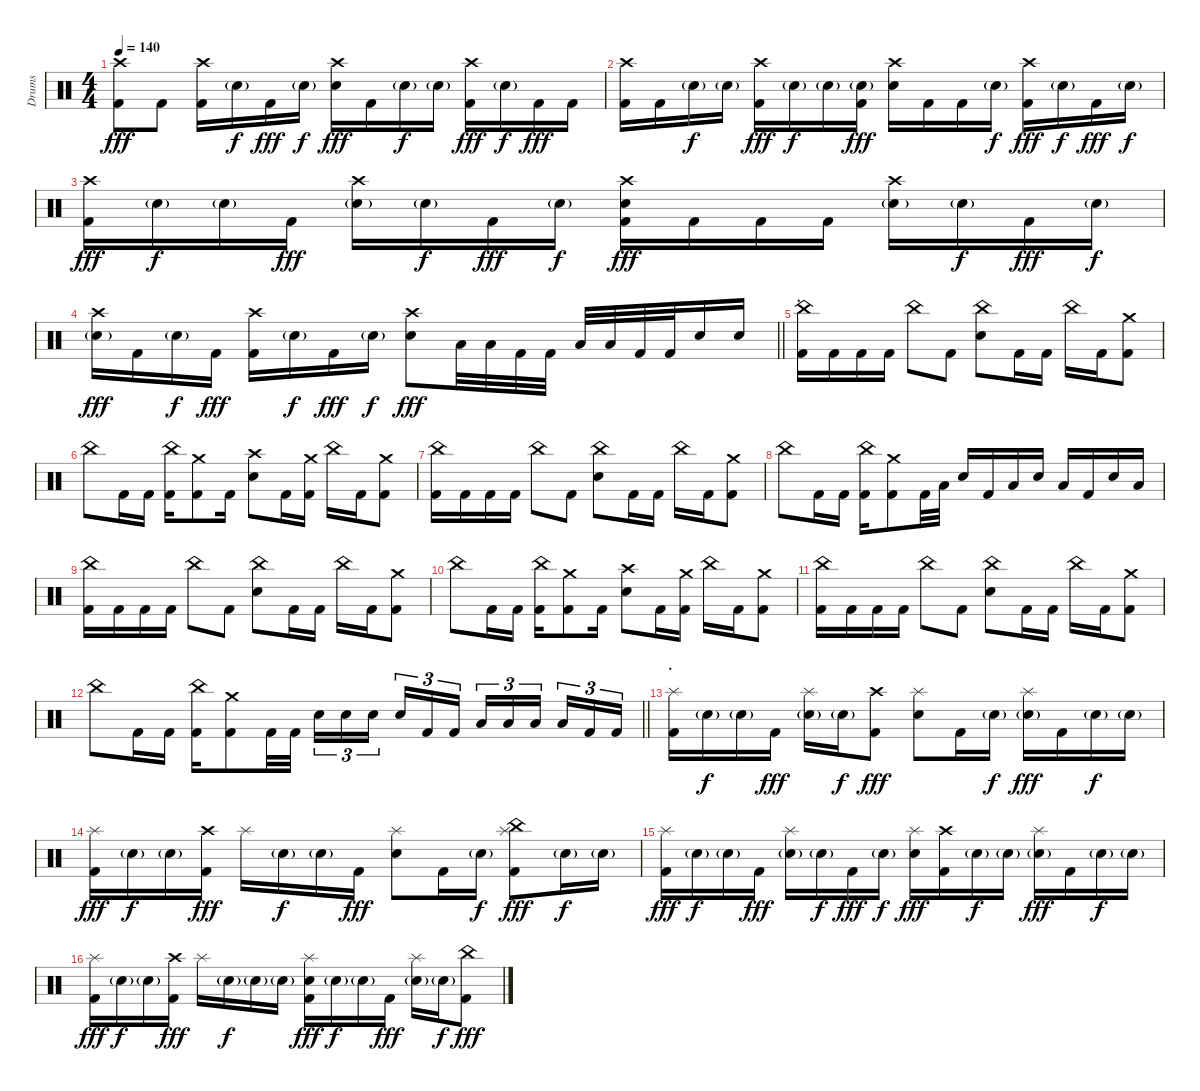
\track ("Drums" "Drums") {instrument percussion}
\staff {score}
\articulation defaults
\ts (4 4)
\tempo 140
\clef neutral
\ks c
("Crash high (hit)" "Kick (hit) 2").8{dy fff} "Kick (hit) 2".8 ("Crash high (hit)" "Kick (hit) 2").16 "Electric Snare (hit)"{g}.16{dy f} "Kick (hit) 2".16{dy fff} "Electric Snare (hit)"{g}.16{dy f} ("Crash high (hit)" "Electric Snare (hit)").16{dy fff} "Kick (hit) 2".16 "Electric Snare (hit)"{g}.16{dy f} "Electric Snare (hit)"{g}.16 ("Crash high (hit)" "Kick (hit) 2").16{dy fff} "Electric Snare (hit)"{g}.16{dy f} "Kick (hit) 2".16{dy fff} "Kick (hit) 2".16 |
("Crash high (hit)" "Kick (hit) 2").16 "Kick (hit) 2".16 "Electric Snare (hit)"{g}.16{dy f} "Electric Snare (hit)"{g}.16 ("Crash high (hit)" "Kick (hit) 2").16{dy fff} "Electric Snare (hit)"{g}.16{dy f} "Electric Snare (hit)"{g}.16 ("Electric Snare (hit)"{g} "Kick (hit) 2").16{dy fff} ("Crash high (hit)" "Electric Snare (hit)").16 "Kick (hit) 2".16 "Kick (hit) 2".16 "Electric Snare (hit)"{g}.16{dy f} ("Crash high (hit)" "Kick (hit) 2").16{dy fff} "Electric Snare (hit)"{g}.16{dy f} "Kick (hit) 2".16{dy fff} "Electric Snare (hit)"{g}.16{dy f} |
("Crash high (hit)" "Kick (hit) 2").16{dy fff} "Electric Snare (hit)"{g}.16{dy f} "Electric Snare (hit)"{g}.16 "Kick (hit) 2".16{dy fff} ("Crash high (hit)" "Electric Snare (hit)"{g}).16 "Electric Snare (hit)"{g}.16{dy f} "Kick (hit) 2".16{dy fff} "Electric Snare (hit)"{g}.16{dy f} ("Crash high (hit)" "Electric Snare (hit)" "Kick (hit) 2").16{dy fff} "Kick (hit) 2".16 "Kick (hit) 2".16 "Kick (hit) 2".16 ("Crash high (hit)" "Electric Snare (hit)"{g}).16 "Electric Snare (hit)"{g}.16{dy f} "Kick (hit) 2".16{dy fff} "Electric Snare (hit)"{g}.16{dy f} |
\barLineRight lightlight
("Crash high (hit)" "Electric Snare (hit)"{g}).16{dy fff} "Kick (hit) 2".16 "Electric Snare (hit)"{g}.16{dy f} "Kick (hit) 2".16{dy fff} ("Crash high (hit)" "Kick (hit) 2").16 "Electric Snare (hit)"{g}.16{dy f} "Kick (hit) 2".16{dy fff} "Electric Snare (hit)"{g}.16{dy f} ("Crash high (hit)" "Electric Snare (hit)").8{dy fff} "Low Floor Tom (hit)".32 "Low Floor Tom (hit)".32 "Kick (hit) 2".32 "Kick (hit) 2".32 "Low Floor Tom (hit)".32 "Low Floor Tom (hit)".32 "Kick (hit) 2".32 "Kick (hit) 2".32 "Electric Snare (hit)".16 "Electric Snare (hit)".16 |
\section ("" ".")
("China (hit)" "Kick (hit) 2").16 "Kick (hit) 2".16 "Kick (hit) 2".16 "Kick (hit) 2".16 "China (hit)".8 "Kick (hit) 2".8 ("China (hit)" "Electric Snare (hit)").8 "Kick (hit) 2".16 "Kick (hit) 2".16 "China (hit)".16 "Kick (hit) 2".16 ("Crash medium (hit)" "Kick (hit) 2").8 |
"China (hit)".8 "Kick (hit) 2".16 "Kick (hit) 2".16 ("China (hit)" "Kick (hit) 2").16 ("Crash medium (hit)" "Kick (hit) 2").8 "Kick (hit) 2".16 ("Crash high (hit)" "Electric Snare (hit)").8 "Kick (hit) 2".16 ("Crash medium (hit)" "Kick (hit) 2").16 "China (hit)".16 "Kick (hit) 2".16 ("Crash medium (hit)" "Kick (hit) 2").8 |
("China (hit)" "Kick (hit) 2").16 "Kick (hit) 2".16 "Kick (hit) 2".16 "Kick (hit) 2".16 "China (hit)".8 "Kick (hit) 2".8 ("China (hit)" "Electric Snare (hit)").8 "Kick (hit) 2".16 "Kick (hit) 2".16 "China (hit)".16 "Kick (hit) 2".16 ("Crash medium (hit)" "Kick (hit) 2").8 |
"China (hit)".8 "Kick (hit) 2".16 "Kick (hit) 2".16 ("China (hit)" "Kick (hit) 2").16 ("Crash medium (hit)" "Kick (hit) 2").8 "Kick (hit) 2".32 "Low Floor Tom (hit)".32 "Electric Snare (hit)".16 "Kick (hit) 2".16 "Low Floor Tom (hit)".16 "Electric Snare (hit)".16 "Low Floor Tom (hit)".16 "Kick (hit) 2".16 "Electric Snare (hit)".16 "Low Floor Tom (hit)".16 |
("China (hit)" "Kick (hit) 2").16 "Kick (hit) 2".16 "Kick (hit) 2".16 "Kick (hit) 2".16 "China (hit)".8 "Kick (hit) 2".8 ("China (hit)" "Electric Snare (hit)").8 "Kick (hit) 2".16 "Kick (hit) 2".16 "China (hit)".16 "Kick (hit) 2".16 ("Crash medium (hit)" "Kick (hit) 2").8 |
"China (hit)".8 "Kick (hit) 2".16 "Kick (hit) 2".16 ("China (hit)" "Kick (hit) 2").16 ("Crash medium (hit)" "Kick (hit) 2").8 "Kick (hit) 2".16 ("Crash high (hit)" "Electric Snare (hit)").8 "Kick (hit) 2".16 ("Crash medium (hit)" "Kick (hit) 2").16 "China (hit)".16 "Kick (hit) 2".16 ("Crash medium (hit)" "Kick (hit) 2").8 |
("China (hit)" "Kick (hit) 2").16 "Kick (hit) 2".16 "Kick (hit) 2".16 "Kick (hit) 2".16 "China (hit)".8 "Kick (hit) 2".8 ("China (hit)" "Electric Snare (hit)").8 "Kick (hit) 2".16 "Kick (hit) 2".16 "China (hit)".16 "Kick (hit) 2".16 ("Crash medium (hit)" "Kick (hit) 2").8 |
\barLineRight lightlight "China (hit)".8 "Kick (hit) 2".16 "Kick (hit) 2".16
("China (hit)" "Kick (hit) 2").16 ("Crash medium (hit)" "Kick (hit) 2").8 "Kick (hit) 2".32 "Kick (hit) 2".32 "Electric Snare (hit)".16{tu (3 2)} "Electric Snare (hit)".16{tu (3 2)} "Electric Snare (hit)".16{tu (3 2)} "Electric Snare (hit)".16{tu (3 2)} "Kick (hit) 2".16{tu (3 2)} "Kick (hit) 2".16{tu (3 2)} "Low Floor Tom (hit)".16{tu (3 2)} "Low Floor Tom (hit)".16{tu (3 2)} "Low Floor Tom (hit)".16{tu (3 2)} "Low Floor Tom (hit)".16{tu (3 2)} "Kick (hit) 2".16{tu (3 2)} "Kick (hit) 2".16{tu (3 2)} |
\section ("" ".")
("Splash (hit)" "Kick (hit) 2").16 "Electric Snare (hit)"{g}.16{dy f} "Electric Snare (hit)"{g}.16 "Kick (hit) 2".16{dy fff} ("Splash (hit)" "Electric Snare (hit)"{g}).16 "Electric Snare (hit)"{g}.16{dy f} ("Crash high (hit)" "Kick (hit) 2").8{dy fff} ("Splash (hit)" "Electric Snare (hit)").8 "Kick (hit) 2".16 "Electric Snare (hit)"{g}.16{dy f} ("Splash (hit)" "Electric Snare (hit)"{g}).16{dy fff} "Kick (hit) 2".16 "Electric Snare (hit)"{g}.16{dy f} "Electric Snare (hit)"{g}.16 |
("Splash (hit)" "Kick (hit) 2").16{dy fff} "Electric Snare (hit)"{g}.16{dy f} "Electric Snare (hit)"{g}.16 ("Crash high (hit)" "Kick (hit) 2").16{dy fff} "Splash (hit)".16 "Electric Snare (hit)"{g}.16{dy f} "Electric Snare (hit)"{g}.16 "Kick (hit) 2".16{dy fff} ("Splash (hit)" "Electric Snare (hit)").8 "Kick (hit) 2".16 "Electric Snare (hit)"{g}.16{dy f} ("Splash (hit)" "China (hit)" "Kick (hit) 2").8{dy fff} "Electric Snare (hit)"{g}.16{dy f} "Electric Snare (hit)"{g}.16 |
("Splash (hit)" "Kick (hit) 2").16{dy fff} "Electric Snare (hit)"{g}.16{dy f} "Electric Snare (hit)"{g}.16 "Kick (hit) 2".16{dy fff} ("Splash (hit)" "Electric Snare (hit)"{g}).16 "Electric Snare (hit)"{g}.16{dy f} "Kick (hit) 2".16{dy fff} "Electric Snare (hit)"{g}.16{dy f} ("Splash (hit)" "Electric Snare (hit)").16{dy fff} ("Crash high (hit)" "Kick (hit) 2").16 "Electric Snare (hit)"{g}.16{dy f} "Electric Snare (hit)"{g}.16 ("Splash (hit)" "Electric Snare (hit)"{g}).16{dy fff} "Kick (hit) 2".16 "Electric Snare (hit)"{g}.16{dy f} "Electric Snare (hit)"{g}.16 |
("Splash (hit)" "Kick (hit) 2").16{dy fff} "Electric Snare (hit)"{g}.16{dy f} "Electric Snare (hit)"{g}.16 ("Crash high (hit)" "Kick (hit) 2").16{dy fff} "Splash (hit)".16 "Electric Snare (hit)"{g}.16{dy f} "Electric Snare (hit)"{g}.16 "Electric Snare (hit)"{g}.16 ("Splash (hit)" "Electric Snare (hit)" "Kick (hit) 2").16{dy fff} "Electric Snare (hit)"{g}.16{dy f} "Electric Snare (hit)"{g}.16 "Kick (hit) 2".16{dy fff} ("Splash (hit)" "Electric Snare (hit)"{g}).16 "Electric Snare (hit)"{g}.16{dy f} ("China (hit)" "Kick (hit) 2").8{dy fff}
